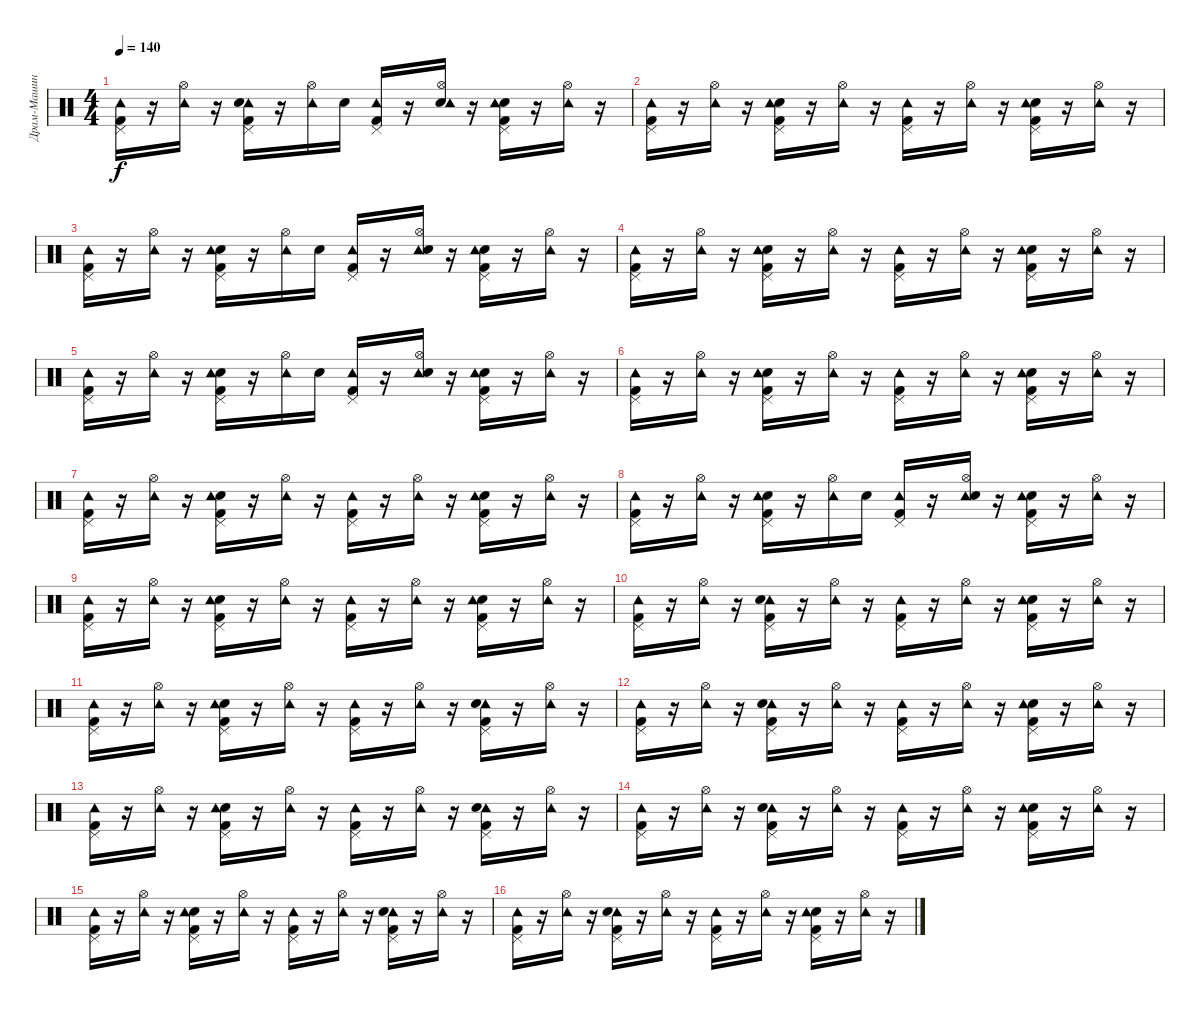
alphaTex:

\track ("Драм-Машина" "Драм-Машин") {instrument percussion}
\staff {score}
\articulation defaults
\ts (4 4)
\tempo 140
\clef neutral
\ks c
("Tambourine (hit)" "Kick (hit) 2" "Pedal Hi-Hat (hit)").16{dy f} r.16 ("Tambourine (hit)" "Hi-Hat (open)").16 r.16 ("Pedal Hi-Hat (hit)" "Kick (hit) 2" "Tambourine (hit)" "Snare (hit) 2").16 r.16 ("Tambourine (hit)" "Hi-Hat (open)").16 "Snare (hit) 2".16 ("Pedal Hi-Hat (hit)" "Kick (hit) 2" "Tambourine (hit)").16 r.16 ("Snare (hit) 2" "Tambourine (hit)" "Hi-Hat (open)").16 r.16 ("Snare (hit) 2" "Kick (hit) 2" "Pedal Hi-Hat (hit)" "Tambourine (hit)").16 r.16 ("Hi-Hat (open)" "Tambourine (hit)").16 r.16 |
("Tambourine (hit)" "Pedal Hi-Hat (hit)" "Kick (hit) 2").16 r.16 ("Hi-Hat (open)" "Tambourine (hit)").16 r.16 ("Pedal Hi-Hat (hit)" "Snare (hit) 2" "Tambourine (hit)" "Kick (hit) 2").16 r.16 ("Hi-Hat (open)" "Tambourine (hit)").16 r.16 ("Pedal Hi-Hat (hit)" "Kick (hit) 2" "Tambourine (hit)").16 r.16 ("Tambourine (hit)" "Hi-Hat (open)").16 r.16 ("Snare (hit) 2" "Kick (hit) 2" "Pedal Hi-Hat (hit)" "Tambourine (hit)").16 r.16 ("Tambourine (hit)" "Hi-Hat (open)").16 r.16 |
("Kick (hit) 2" "Tambourine (hit)" "Pedal Hi-Hat (hit)").16 r.16 ("Tambourine (hit)" "Hi-Hat (open)").16 r.16 ("Kick (hit) 2" "Snare (hit) 2" "Tambourine (hit)" "Pedal Hi-Hat (hit)").16 r.16 ("Hi-Hat (open)" "Tambourine (hit)").16 "Snare (hit) 2".16 ("Pedal Hi-Hat (hit)" "Kick (hit) 2" "Tambourine (hit)").16 r.16 ("Tambourine (hit)" "Snare (hit) 2" "Hi-Hat (open)").16 r.16 ("Snare (hit) 2" "Tambourine (hit)" "Kick (hit) 2" "Pedal Hi-Hat (hit)").16 r.16 ("Hi-Hat (open)" "Tambourine (hit)").16 r.16 |
("Tambourine (hit)" "Pedal Hi-Hat (hit)" "Kick (hit) 2").16 r.16 ("Hi-Hat (open)" "Tambourine (hit)").16 r.16 ("Pedal Hi-Hat (hit)" "Snare (hit) 2" "Tambourine (hit)" "Kick (hit) 2").16 r.16 ("Hi-Hat (open)" "Tambourine (hit)").16 r.16 ("Pedal Hi-Hat (hit)" "Kick (hit) 2" "Tambourine (hit)").16 r.16 ("Tambourine (hit)" "Hi-Hat (open)").16 r.16 ("Snare (hit) 2" "Kick (hit) 2" "Pedal Hi-Hat (hit)" "Tambourine (hit)").16 r.16 ("Tambourine (hit)" "Hi-Hat (open)").16 r.16 |
("Kick (hit) 2" "Tambourine (hit)" "Pedal Hi-Hat (hit)").16 r.16 ("Tambourine (hit)" "Hi-Hat (open)").16 r.16 ("Kick (hit) 2" "Snare (hit) 2" "Tambourine (hit)" "Pedal Hi-Hat (hit)").16 r.16 ("Hi-Hat (open)" "Tambourine (hit)").16 "Snare (hit) 2".16 ("Pedal Hi-Hat (hit)" "Kick (hit) 2" "Tambourine (hit)").16 r.16 ("Tambourine (hit)" "Snare (hit) 2" "Hi-Hat (open)").16 r.16 ("Snare (hit) 2" "Tambourine (hit)" "Kick (hit) 2" "Pedal Hi-Hat (hit)").16 r.16 ("Hi-Hat (open)" "Tambourine (hit)").16 r.16 |
("Tambourine (hit)" "Pedal Hi-Hat (hit)" "Kick (hit) 2").16 r.16 ("Hi-Hat (open)" "Tambourine (hit)").16 r.16 ("Pedal Hi-Hat (hit)" "Snare (hit) 2" "Tambourine (hit)" "Kick (hit) 2").16 r.16 ("Hi-Hat (open)" "Tambourine (hit)").16 r.16 ("Pedal Hi-Hat (hit)" "Kick (hit) 2" "Tambourine (hit)").16 r.16 ("Tambourine (hit)" "Hi-Hat (open)").16 r.16 ("Snare (hit) 2" "Kick (hit) 2" "Pedal Hi-Hat (hit)" "Tambourine (hit)").16 r.16 ("Tambourine (hit)" "Hi-Hat (open)").16 r.16 |
("Tambourine (hit)" "Pedal Hi-Hat (hit)" "Kick (hit) 2").16 r.16 ("Hi-Hat (open)" "Tambourine (hit)").16 r.16 ("Pedal Hi-Hat (hit)" "Snare (hit) 2" "Tambourine (hit)" "Kick (hit) 2").16 r.16 ("Hi-Hat (open)" "Tambourine (hit)").16 r.16 ("Pedal Hi-Hat (hit)" "Kick (hit) 2" "Tambourine (hit)").16 r.16 ("Tambourine (hit)" "Hi-Hat (open)").16 r.16 ("Snare (hit) 2" "Kick (hit) 2" "Pedal Hi-Hat (hit)" "Tambourine (hit)").16 r.16 ("Tambourine (hit)" "Hi-Hat (open)").16 r.16 |
("Kick (hit) 2" "Tambourine (hit)" "Pedal Hi-Hat (hit)").16 r.16 ("Tambourine (hit)" "Hi-Hat (open)").16 r.16 ("Kick (hit) 2" "Snare (hit) 2" "Tambourine (hit)" "Pedal Hi-Hat (hit)").16 r.16 ("Hi-Hat (open)" "Tambourine (hit)").16 "Snare (hit) 2".16 ("Pedal Hi-Hat (hit)" "Kick (hit) 2" "Tambourine (hit)").16 r.16 ("Tambourine (hit)" "Snare (hit) 2" "Hi-Hat (open)").16 r.16 ("Snare (hit) 2" "Tambourine (hit)" "Kick (hit) 2" "Pedal Hi-Hat (hit)").16 r.16 ("Hi-Hat (open)" "Tambourine (hit)").16 r.16 |
("Tambourine (hit)" "Pedal Hi-Hat (hit)" "Kick (hit) 2").16 r.16 ("Hi-Hat (open)" "Tambourine (hit)").16 r.16 ("Pedal Hi-Hat (hit)" "Snare (hit) 2" "Tambourine (hit)" "Kick (hit) 2").16 r.16 ("Hi-Hat (open)" "Tambourine (hit)").16 r.16 ("Pedal Hi-Hat (hit)" "Kick (hit) 2" "Tambourine (hit)").16 r.16 ("Tambourine (hit)" "Hi-Hat (open)").16 r.16 ("Snare (hit) 2" "Kick (hit) 2" "Pedal Hi-Hat (hit)" "Tambourine (hit)").16 r.16 ("Tambourine (hit)" "Hi-Hat (open)").16 r.16 |
("Pedal Hi-Hat (hit)" "Tambourine (hit)" "Kick (hit) 2").16 r.16 ("Tambourine (hit)" "Hi-Hat (open)").16 r.16 ("Kick (hit) 2" "Tambourine (hit)" "Snare (hit) 2" "Pedal Hi-Hat (hit)").16 r.16 ("Hi-Hat (open)" "Tambourine (hit)").16 r.16 ("Pedal Hi-Hat (hit)" "Tambourine (hit)" "Kick (hit) 2").16 r.16 ("Hi-Hat (open)" "Tambourine (hit)").16 r.16 ("Kick (hit) 2" "Snare (hit) 2" "Pedal Hi-Hat (hit)" "Tambourine (hit)").16 r.16 ("Hi-Hat (open)" "Tambourine (hit)").16 r.16 |
("Pedal Hi-Hat (hit)" "Kick (hit) 2" "Tambourine (hit)").16 r.16 ("Hi-Hat (open)" "Tambourine (hit)").16 r.16 ("Pedal Hi-Hat (hit)" "Kick (hit) 2" "Snare (hit) 2" "Tambourine (hit)").16 r.16 ("Tambourine (hit)" "Hi-Hat (open)").16 r.16 ("Tambourine (hit)" "Pedal Hi-Hat (hit)" "Kick (hit) 2").16 r.16 ("Hi-Hat (open)" "Tambourine (hit)").16 r.16 ("Kick (hit) 2" "Tambourine (hit)" "Snare (hit) 2" "Pedal Hi-Hat (hit)").16 r.16 ("Tambourine (hit)" "Hi-Hat (open)").16 r.16 |
("Pedal Hi-Hat (hit)" "Tambourine (hit)" "Kick (hit) 2").16 r.16 ("Tambourine (hit)" "Hi-Hat (open)").16 r.16 ("Kick (hit) 2" "Tambourine (hit)" "Snare (hit) 2" "Pedal Hi-Hat (hit)").16 r.16 ("Hi-Hat (open)" "Tambourine (hit)").16 r.16 ("Pedal Hi-Hat (hit)" "Tambourine (hit)" "Kick (hit) 2").16 r.16 ("Hi-Hat (open)" "Tambourine (hit)").16 r.16 ("Kick (hit) 2" "Snare (hit) 2" "Pedal Hi-Hat (hit)" "Tambourine (hit)").16 r.16 ("Hi-Hat (open)" "Tambourine (hit)").16 r.16 |
("Pedal Hi-Hat (hit)" "Kick (hit) 2" "Tambourine (hit)").16 r.16 ("Hi-Hat (open)" "Tambourine (hit)").16 r.16 ("Pedal Hi-Hat (hit)" "Kick (hit) 2" "Snare (hit) 2" "Tambourine (hit)").16 r.16 ("Tambourine (hit)" "Hi-Hat (open)").16 r.16 ("Tambourine (hit)" "Pedal Hi-Hat (hit)" "Kick (hit) 2").16 r.16 ("Hi-Hat (open)" "Tambourine (hit)").16 r.16 ("Kick (hit) 2" "Tambourine (hit)" "Snare (hit) 2" "Pedal Hi-Hat (hit)").16 r.16 ("Tambourine (hit)" "Hi-Hat (open)").16 r.16 |
("Pedal Hi-Hat (hit)" "Tambourine (hit)" "Kick (hit) 2").16 r.16 ("Tambourine (hit)" "Hi-Hat (open)").16 r.16 ("Kick (hit) 2" "Tambourine (hit)" "Snare (hit) 2" "Pedal Hi-Hat (hit)").16 r.16 ("Hi-Hat (open)" "Tambourine (hit)").16 r.16 ("Pedal Hi-Hat (hit)" "Tambourine (hit)" "Kick (hit) 2").16 r.16 ("Hi-Hat (open)" "Tambourine (hit)").16 r.16 ("Kick (hit) 2" "Snare (hit) 2" "Pedal Hi-Hat (hit)" "Tambourine (hit)").16 r.16 ("Hi-Hat (open)" "Tambourine (hit)").16 r.16 |
("Pedal Hi-Hat (hit)" "Kick (hit) 2" "Tambourine (hit)").16 r.16 ("Hi-Hat (open)" "Tambourine (hit)").16 r.16 ("Pedal Hi-Hat (hit)" "Kick (hit) 2" "Snare (hit) 2" "Tambourine (hit)").16 r.16 ("Tambourine (hit)" "Hi-Hat (open)").16 r.16 ("Tambourine (hit)" "Pedal Hi-Hat (hit)" "Kick (hit) 2").16 r.16 ("Hi-Hat (open)" "Tambourine (hit)").16 r.16 ("Kick (hit) 2" "Tambourine (hit)" "Snare (hit) 2" "Pedal Hi-Hat (hit)").16 r.16 ("Tambourine (hit)" "Hi-Hat (open)").16 r.16 |
("Pedal Hi-Hat (hit)" "Tambourine (hit)" "Kick (hit) 2").16 r.16 ("Tambourine (hit)" "Hi-Hat (open)").16 r.16 ("Kick (hit) 2" "Tambourine (hit)" "Snare (hit) 2" "Pedal Hi-Hat (hit)").16 r.16 ("Hi-Hat (open)" "Tambourine (hit)").16 r.16 ("Pedal Hi-Hat (hit)" "Tambourine (hit)" "Kick (hit) 2").16 r.16 ("Hi-Hat (open)" "Tambourine (hit)").16 r.16 ("Kick (hit) 2" "Snare (hit) 2" "Pedal Hi-Hat (hit)" "Tambourine (hit)").16 r.16 ("Hi-Hat (open)" "Tambourine (hit)").16 r.16
